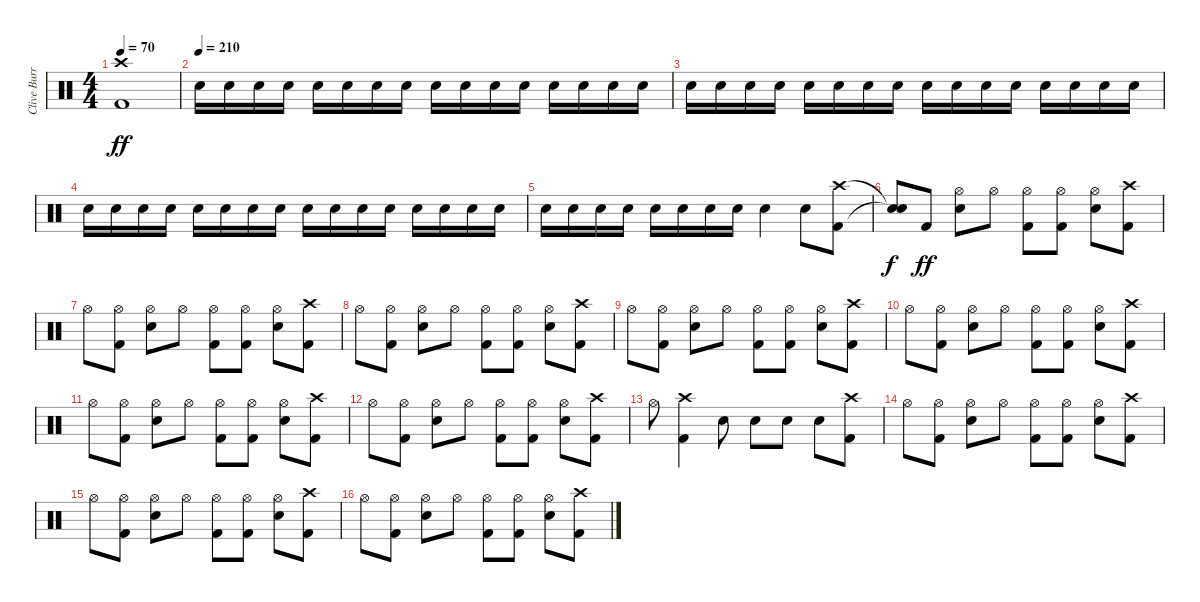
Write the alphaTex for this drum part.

\track ("Clive Burr" "Clive Burr") {instrument percussion}
\staff {score}
\articulation defaults
\ts (4 4)
\tempo 70
\clef neutral
\ks c
("Kick (hit) 2" "Crash high (hit)").1{dy ff} |
\tempo (210)
"Snare (hit) 2".16{volume 16} "Snare (hit) 2".16{volume 8} "Snare (hit) 2".16 "Snare (hit) 2".16 "Snare (hit) 2".16 "Snare (hit) 2".16 "Snare (hit) 2".16{volume 16} "Snare (hit) 2".16{volume 8} "Snare (hit) 2".16 "Snare (hit) 2".16 "Snare (hit) 2".16 "Snare (hit) 2".16 "Snare (hit) 2".16{volume 16} "Snare (hit) 2".16{volume 8} "Snare (hit) 2".16{volume 16} "Snare (hit) 2".16{volume 8} |
"Snare (hit) 2".16{volume 16} "Snare (hit) 2".16{volume 8} "Snare (hit) 2".16 "Snare (hit) 2".16 "Snare (hit) 2".16 "Snare (hit) 2".16 "Snare (hit) 2".16{volume 16} "Snare (hit) 2".16{volume 8} "Snare (hit) 2".16 "Snare (hit) 2".16 "Snare (hit) 2".16 "Snare (hit) 2".16 "Snare (hit) 2".16{volume 16} "Snare (hit) 2".16{volume 8} "Snare (hit) 2".16{volume 16} "Snare (hit) 2".16{volume 8} |
"Snare (hit) 2".16{volume 16} "Snare (hit) 2".16{volume 8} "Snare (hit) 2".16 "Snare (hit) 2".16 "Snare (hit) 2".16 "Snare (hit) 2".16 "Snare (hit) 2".16{volume 16} "Snare (hit) 2".16{volume 8} "Snare (hit) 2".16 "Snare (hit) 2".16 "Snare (hit) 2".16 "Snare (hit) 2".16 "Snare (hit) 2".16{volume 16} "Snare (hit) 2".16{volume 8} "Snare (hit) 2".16{volume 16} "Snare (hit) 2".16{volume 8} |
"Snare (hit) 2".16{volume 16} "Snare (hit) 2".16{volume 8} "Snare (hit) 2".16 "Snare (hit) 2".16 "Snare (hit) 2".16{volume 16} "Snare (hit) 2".16{volume 8} "Snare (hit) 2".16 "Snare (hit) 2".16 "Snare (hit) 2".4{volume 16} "Snare (hit) 2".8{volume 16} ("Kick (hit) 2" "Crash high (hit)").8 |
("Snare (hit)"{t} "Snare (hit)"{t}).8{dy f} "Kick (hit) 2".8{dy ff} ("Snare (hit) 2" "Hi-Hat (open)").8 "Hi-Hat (open)".8 ("Kick (hit) 2" "Hi-Hat (open)").8 ("Kick (hit) 2" "Hi-Hat (open)").8 ("Snare (hit) 2" "Hi-Hat (open)").8 ("Kick (hit) 2" "Crash high (hit)").8 |
"Hi-Hat (open)".8 ("Kick (hit) 2" "Hi-Hat (open)").8 ("Snare (hit) 2" "Hi-Hat (open)").8 "Hi-Hat (open)".8 ("Kick (hit) 2" "Hi-Hat (open)").8 ("Kick (hit) 2" "Hi-Hat (open)").8 ("Snare (hit) 2" "Hi-Hat (open)").8 ("Kick (hit) 2" "Crash high (hit)").8 |
"Hi-Hat (open)".8 ("Kick (hit) 2" "Hi-Hat (open)").8 ("Snare (hit) 2" "Hi-Hat (open)").8 "Hi-Hat (open)".8 ("Kick (hit) 2" "Hi-Hat (open)").8 ("Kick (hit) 2" "Hi-Hat (open)").8 ("Snare (hit) 2" "Hi-Hat (open)").8 ("Kick (hit) 2" "Crash high (hit)").8 |
"Hi-Hat (open)".8 ("Kick (hit) 2" "Hi-Hat (open)").8 ("Snare (hit) 2" "Hi-Hat (open)").8 "Hi-Hat (open)".8 ("Kick (hit) 2" "Hi-Hat (open)").8 ("Kick (hit) 2" "Hi-Hat (open)").8 ("Snare (hit) 2" "Hi-Hat (open)").8 ("Kick (hit) 2" "Crash high (hit)").8 |
"Hi-Hat (open)".8 ("Kick (hit) 2" "Hi-Hat (open)").8 ("Snare (hit) 2" "Hi-Hat (open)").8 "Hi-Hat (open)".8 ("Kick (hit) 2" "Hi-Hat (open)").8 ("Kick (hit) 2" "Hi-Hat (open)").8 ("Snare (hit) 2" "Hi-Hat (open)").8 ("Kick (hit) 2" "Crash high (hit)").8 |
"Hi-Hat (open)".8 ("Kick (hit) 2" "Hi-Hat (open)").8 ("Snare (hit) 2" "Hi-Hat (open)").8 "Hi-Hat (open)".8 ("Kick (hit) 2" "Hi-Hat (open)").8 ("Kick (hit) 2" "Hi-Hat (open)").8 ("Snare (hit) 2" "Hi-Hat (open)").8 ("Kick (hit) 2" "Crash high (hit)").8 |
"Hi-Hat (open)".8 ("Kick (hit) 2" "Hi-Hat (open)").8 ("Snare (hit) 2" "Hi-Hat (open)").8 "Hi-Hat (open)".8 ("Kick (hit) 2" "Hi-Hat (open)").8 ("Kick (hit) 2" "Hi-Hat (open)").8 ("Snare (hit) 2" "Hi-Hat (open)").8 ("Kick (hit) 2" "Crash high (hit)").8 |
"Hi-Hat (open)".8 ("Kick (hit) 2" "Crash high (hit)").4 "Snare (hit) 2".8 "Snare (hit) 2".8 "Snare (hit) 2".8 "Snare (hit) 2".8 ("Kick (hit) 2" "Crash high (hit)").8 |
"Hi-Hat (open)".8 ("Kick (hit) 2" "Hi-Hat (open)").8 ("Snare (hit) 2" "Hi-Hat (open)").8 "Hi-Hat (open)".8 ("Kick (hit) 2" "Hi-Hat (open)").8 ("Kick (hit) 2" "Hi-Hat (open)").8 ("Snare (hit) 2" "Hi-Hat (open)").8 ("Kick (hit) 2" "Crash high (hit)").8 |
"Hi-Hat (open)".8 ("Kick (hit) 2" "Hi-Hat (open)").8 ("Snare (hit) 2" "Hi-Hat (open)").8 "Hi-Hat (open)".8 ("Kick (hit) 2" "Hi-Hat (open)").8 ("Kick (hit) 2" "Hi-Hat (open)").8 ("Snare (hit) 2" "Hi-Hat (open)").8 ("Kick (hit) 2" "Crash high (hit)").8 |
"Hi-Hat (open)".8 ("Kick (hit) 2" "Hi-Hat (open)").8 ("Snare (hit) 2" "Hi-Hat (open)").8 "Hi-Hat (open)".8 ("Kick (hit) 2" "Hi-Hat (open)").8 ("Kick (hit) 2" "Hi-Hat (open)").8 ("Snare (hit) 2" "Hi-Hat (open)").8 ("Kick (hit) 2" "Crash high (hit)").8
